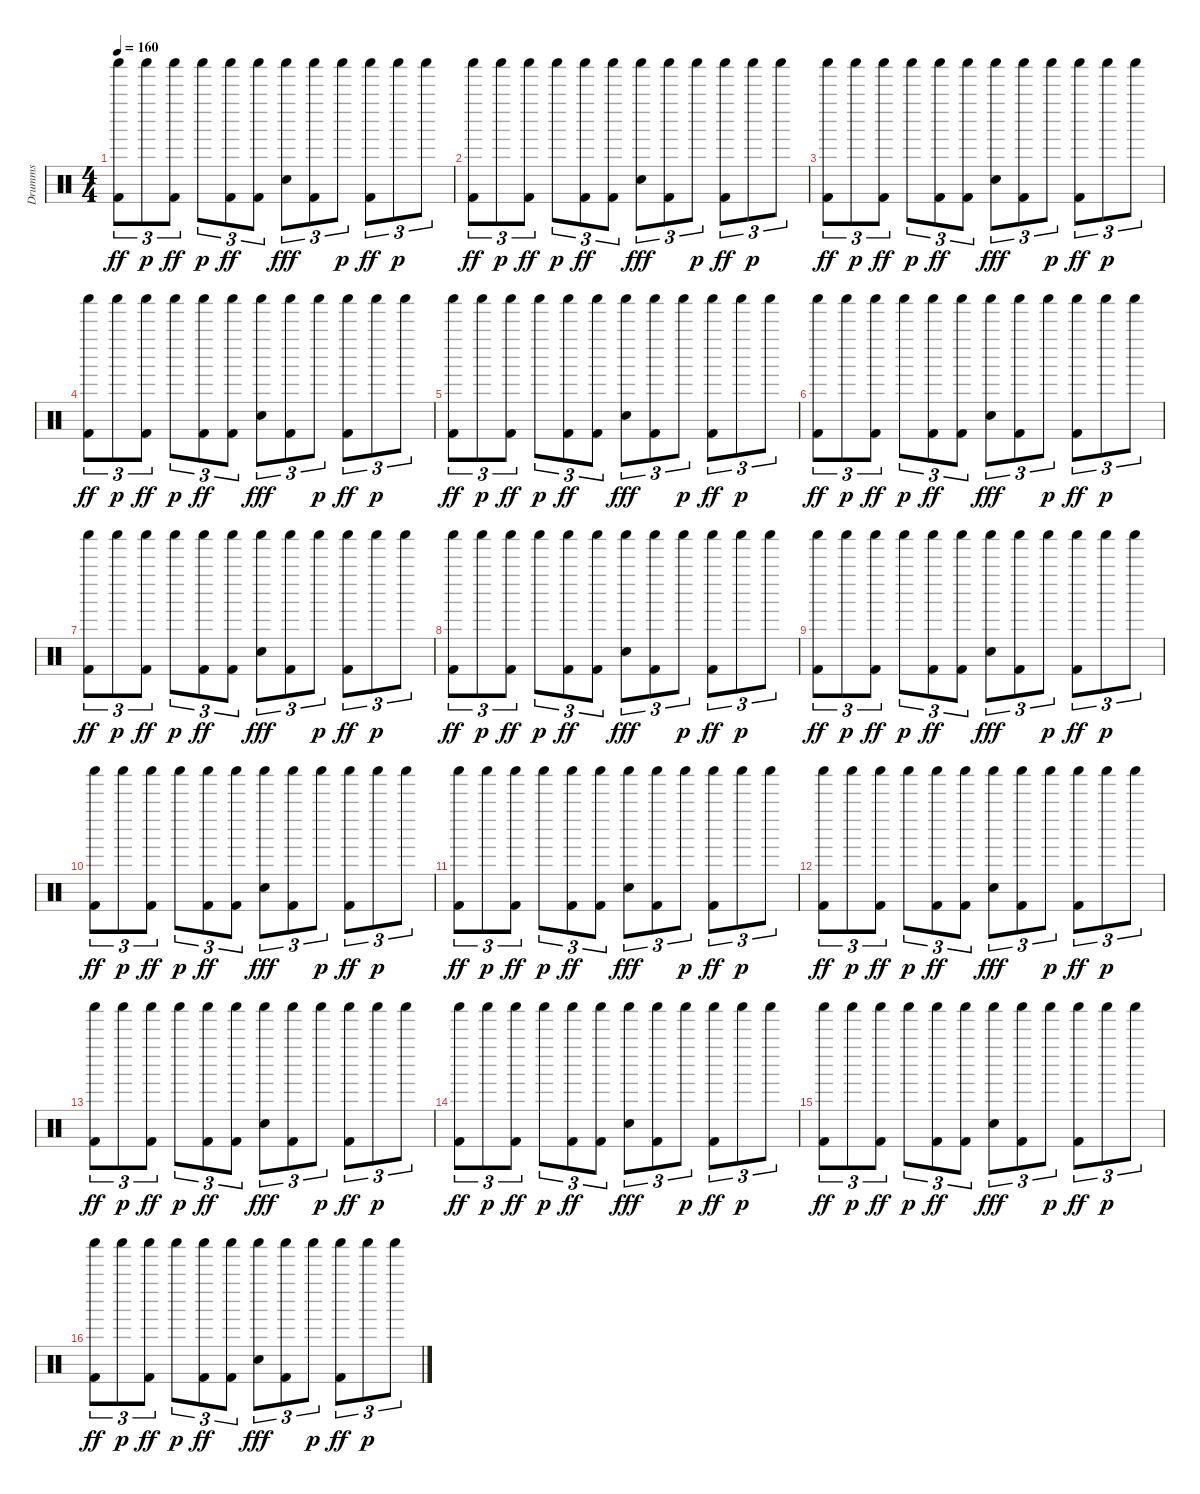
\track ("Drumms" "Drumms") {instrument percussion}
\staff {score}
\articulation defaults
\ts (4 4)
\tempo 160
\clef neutral
\ks c
("Shaker (hit)" "Kick (hit) 2").8{tu (3 2) dy ff} "Shaker (hit)".8{tu (3 2) dy p} ("Shaker (hit)" "Kick (hit) 2").8{tu (3 2) dy ff} "Shaker (hit)".8{tu (3 2) dy p} ("Shaker (hit)" "Kick (hit) 2").8{tu (3 2) dy ff} ("Shaker (hit)" "Kick (hit) 2").8{tu (3 2)} ("Shaker (hit)" "Snare (hit) 2").8{tu (3 2) dy fff} ("Shaker (hit)" "Kick (hit) 2").8{tu (3 2)} "Shaker (hit)".8{tu (3 2) dy p} ("Shaker (hit)" "Kick (hit) 2").8{tu (3 2) dy ff} "Shaker (hit)".8{tu (3 2) dy p} "Shaker (hit)".8{tu (3 2)} |
("Shaker (hit)" "Kick (hit) 2").8{tu (3 2) dy ff} "Shaker (hit)".8{tu (3 2) dy p} ("Shaker (hit)" "Kick (hit) 2").8{tu (3 2) dy ff} "Shaker (hit)".8{tu (3 2) dy p} ("Shaker (hit)" "Kick (hit) 2").8{tu (3 2) dy ff} ("Shaker (hit)" "Kick (hit) 2").8{tu (3 2)} ("Shaker (hit)" "Snare (hit) 2").8{tu (3 2) dy fff} ("Shaker (hit)" "Kick (hit) 2").8{tu (3 2)} "Shaker (hit)".8{tu (3 2) dy p} ("Shaker (hit)" "Kick (hit) 2").8{tu (3 2) dy ff} "Shaker (hit)".8{tu (3 2) dy p} "Shaker (hit)".8{tu (3 2)} |
("Shaker (hit)" "Kick (hit) 2").8{tu (3 2) dy ff} "Shaker (hit)".8{tu (3 2) dy p} ("Shaker (hit)" "Kick (hit) 2").8{tu (3 2) dy ff} "Shaker (hit)".8{tu (3 2) dy p} ("Shaker (hit)" "Kick (hit) 2").8{tu (3 2) dy ff} ("Shaker (hit)" "Kick (hit) 2").8{tu (3 2)} ("Shaker (hit)" "Snare (hit) 2").8{tu (3 2) dy fff} ("Shaker (hit)" "Kick (hit) 2").8{tu (3 2)} "Shaker (hit)".8{tu (3 2) dy p} ("Shaker (hit)" "Kick (hit) 2").8{tu (3 2) dy ff} "Shaker (hit)".8{tu (3 2) dy p} "Shaker (hit)".8{tu (3 2)} |
("Shaker (hit)" "Kick (hit) 2").8{tu (3 2) dy ff} "Shaker (hit)".8{tu (3 2) dy p} ("Shaker (hit)" "Kick (hit) 2").8{tu (3 2) dy ff} "Shaker (hit)".8{tu (3 2) dy p} ("Shaker (hit)" "Kick (hit) 2").8{tu (3 2) dy ff} ("Shaker (hit)" "Kick (hit) 2").8{tu (3 2)} ("Shaker (hit)" "Snare (hit) 2").8{tu (3 2) dy fff} ("Shaker (hit)" "Kick (hit) 2").8{tu (3 2)} "Shaker (hit)".8{tu (3 2) dy p} ("Shaker (hit)" "Kick (hit) 2").8{tu (3 2) dy ff} "Shaker (hit)".8{tu (3 2) dy p} "Shaker (hit)".8{tu (3 2)} |
("Shaker (hit)" "Kick (hit) 2").8{tu (3 2) dy ff} "Shaker (hit)".8{tu (3 2) dy p} ("Shaker (hit)" "Kick (hit) 2").8{tu (3 2) dy ff} "Shaker (hit)".8{tu (3 2) dy p} ("Shaker (hit)" "Kick (hit) 2").8{tu (3 2) dy ff} ("Shaker (hit)" "Kick (hit) 2").8{tu (3 2)} ("Shaker (hit)" "Snare (hit) 2").8{tu (3 2) dy fff} ("Shaker (hit)" "Kick (hit) 2").8{tu (3 2)} "Shaker (hit)".8{tu (3 2) dy p} ("Shaker (hit)" "Kick (hit) 2").8{tu (3 2) dy ff} "Shaker (hit)".8{tu (3 2) dy p} "Shaker (hit)".8{tu (3 2)} |
("Shaker (hit)" "Kick (hit) 2").8{tu (3 2) dy ff} "Shaker (hit)".8{tu (3 2) dy p} ("Shaker (hit)" "Kick (hit) 2").8{tu (3 2) dy ff} "Shaker (hit)".8{tu (3 2) dy p} ("Shaker (hit)" "Kick (hit) 2").8{tu (3 2) dy ff} ("Shaker (hit)" "Kick (hit) 2").8{tu (3 2)} ("Shaker (hit)" "Snare (hit) 2").8{tu (3 2) dy fff} ("Shaker (hit)" "Kick (hit) 2").8{tu (3 2)} "Shaker (hit)".8{tu (3 2) dy p} ("Shaker (hit)" "Kick (hit) 2").8{tu (3 2) dy ff} "Shaker (hit)".8{tu (3 2) dy p} "Shaker (hit)".8{tu (3 2)} |
("Shaker (hit)" "Kick (hit) 2").8{tu (3 2) dy ff} "Shaker (hit)".8{tu (3 2) dy p} ("Shaker (hit)" "Kick (hit) 2").8{tu (3 2) dy ff} "Shaker (hit)".8{tu (3 2) dy p} ("Shaker (hit)" "Kick (hit) 2").8{tu (3 2) dy ff} ("Shaker (hit)" "Kick (hit) 2").8{tu (3 2)} ("Shaker (hit)" "Snare (hit) 2").8{tu (3 2) dy fff} ("Shaker (hit)" "Kick (hit) 2").8{tu (3 2)} "Shaker (hit)".8{tu (3 2) dy p} ("Shaker (hit)" "Kick (hit) 2").8{tu (3 2) dy ff} "Shaker (hit)".8{tu (3 2) dy p} "Shaker (hit)".8{tu (3 2)} |
("Shaker (hit)" "Kick (hit) 2").8{tu (3 2) dy ff} "Shaker (hit)".8{tu (3 2) dy p} ("Shaker (hit)" "Kick (hit) 2").8{tu (3 2) dy ff} "Shaker (hit)".8{tu (3 2) dy p} ("Shaker (hit)" "Kick (hit) 2").8{tu (3 2) dy ff} ("Shaker (hit)" "Kick (hit) 2").8{tu (3 2)} ("Shaker (hit)" "Snare (hit) 2").8{tu (3 2) dy fff} ("Shaker (hit)" "Kick (hit) 2").8{tu (3 2)} "Shaker (hit)".8{tu (3 2) dy p} ("Shaker (hit)" "Kick (hit) 2").8{tu (3 2) dy ff} "Shaker (hit)".8{tu (3 2) dy p} "Shaker (hit)".8{tu (3 2)} |
("Shaker (hit)" "Kick (hit) 2").8{tu (3 2) dy ff} "Shaker (hit)".8{tu (3 2) dy p} ("Shaker (hit)" "Kick (hit) 2").8{tu (3 2) dy ff} "Shaker (hit)".8{tu (3 2) dy p} ("Shaker (hit)" "Kick (hit) 2").8{tu (3 2) dy ff} ("Shaker (hit)" "Kick (hit) 2").8{tu (3 2)} ("Shaker (hit)" "Snare (hit) 2").8{tu (3 2) dy fff} ("Shaker (hit)" "Kick (hit) 2").8{tu (3 2)} "Shaker (hit)".8{tu (3 2) dy p} ("Shaker (hit)" "Kick (hit) 2").8{tu (3 2) dy ff} "Shaker (hit)".8{tu (3 2) dy p} "Shaker (hit)".8{tu (3 2)} |
("Shaker (hit)" "Kick (hit) 2").8{tu (3 2) dy ff} "Shaker (hit)".8{tu (3 2) dy p} ("Shaker (hit)" "Kick (hit) 2").8{tu (3 2) dy ff} "Shaker (hit)".8{tu (3 2) dy p} ("Shaker (hit)" "Kick (hit) 2").8{tu (3 2) dy ff} ("Shaker (hit)" "Kick (hit) 2").8{tu (3 2)} ("Shaker (hit)" "Snare (hit) 2").8{tu (3 2) dy fff} ("Shaker (hit)" "Kick (hit) 2").8{tu (3 2)} "Shaker (hit)".8{tu (3 2) dy p} ("Shaker (hit)" "Kick (hit) 2").8{tu (3 2) dy ff} "Shaker (hit)".8{tu (3 2) dy p} "Shaker (hit)".8{tu (3 2)} |
("Shaker (hit)" "Kick (hit) 2").8{tu (3 2) dy ff} "Shaker (hit)".8{tu (3 2) dy p} ("Shaker (hit)" "Kick (hit) 2").8{tu (3 2) dy ff} "Shaker (hit)".8{tu (3 2) dy p} ("Shaker (hit)" "Kick (hit) 2").8{tu (3 2) dy ff} ("Shaker (hit)" "Kick (hit) 2").8{tu (3 2)} ("Shaker (hit)" "Snare (hit) 2").8{tu (3 2) dy fff} ("Shaker (hit)" "Kick (hit) 2").8{tu (3 2)} "Shaker (hit)".8{tu (3 2) dy p} ("Shaker (hit)" "Kick (hit) 2").8{tu (3 2) dy ff} "Shaker (hit)".8{tu (3 2) dy p} "Shaker (hit)".8{tu (3 2)} |
("Shaker (hit)" "Kick (hit) 2").8{tu (3 2) dy ff} "Shaker (hit)".8{tu (3 2) dy p} ("Shaker (hit)" "Kick (hit) 2").8{tu (3 2) dy ff} "Shaker (hit)".8{tu (3 2) dy p} ("Shaker (hit)" "Kick (hit) 2").8{tu (3 2) dy ff} ("Shaker (hit)" "Kick (hit) 2").8{tu (3 2)} ("Shaker (hit)" "Snare (hit) 2").8{tu (3 2) dy fff} ("Shaker (hit)" "Kick (hit) 2").8{tu (3 2)} "Shaker (hit)".8{tu (3 2) dy p} ("Shaker (hit)" "Kick (hit) 2").8{tu (3 2) dy ff} "Shaker (hit)".8{tu (3 2) dy p} "Shaker (hit)".8{tu (3 2)} |
("Shaker (hit)" "Kick (hit) 2").8{tu (3 2) dy ff} "Shaker (hit)".8{tu (3 2) dy p} ("Shaker (hit)" "Kick (hit) 2").8{tu (3 2) dy ff} "Shaker (hit)".8{tu (3 2) dy p} ("Shaker (hit)" "Kick (hit) 2").8{tu (3 2) dy ff} ("Shaker (hit)" "Kick (hit) 2").8{tu (3 2)} ("Shaker (hit)" "Snare (hit) 2").8{tu (3 2) dy fff} ("Shaker (hit)" "Kick (hit) 2").8{tu (3 2)} "Shaker (hit)".8{tu (3 2) dy p} ("Shaker (hit)" "Kick (hit) 2").8{tu (3 2) dy ff} "Shaker (hit)".8{tu (3 2) dy p} "Shaker (hit)".8{tu (3 2)} |
("Shaker (hit)" "Kick (hit) 2").8{tu (3 2) dy ff} "Shaker (hit)".8{tu (3 2) dy p} ("Shaker (hit)" "Kick (hit) 2").8{tu (3 2) dy ff} "Shaker (hit)".8{tu (3 2) dy p} ("Shaker (hit)" "Kick (hit) 2").8{tu (3 2) dy ff} ("Shaker (hit)" "Kick (hit) 2").8{tu (3 2)} ("Shaker (hit)" "Snare (hit) 2").8{tu (3 2) dy fff} ("Shaker (hit)" "Kick (hit) 2").8{tu (3 2)} "Shaker (hit)".8{tu (3 2) dy p} ("Shaker (hit)" "Kick (hit) 2").8{tu (3 2) dy ff} "Shaker (hit)".8{tu (3 2) dy p} "Shaker (hit)".8{tu (3 2)} |
("Shaker (hit)" "Kick (hit) 2").8{tu (3 2) dy ff} "Shaker (hit)".8{tu (3 2) dy p} ("Shaker (hit)" "Kick (hit) 2").8{tu (3 2) dy ff} "Shaker (hit)".8{tu (3 2) dy p} ("Shaker (hit)" "Kick (hit) 2").8{tu (3 2) dy ff} ("Shaker (hit)" "Kick (hit) 2").8{tu (3 2)} ("Shaker (hit)" "Snare (hit) 2").8{tu (3 2) dy fff} ("Shaker (hit)" "Kick (hit) 2").8{tu (3 2)} "Shaker (hit)".8{tu (3 2) dy p} ("Shaker (hit)" "Kick (hit) 2").8{tu (3 2) dy ff} "Shaker (hit)".8{tu (3 2) dy p} "Shaker (hit)".8{tu (3 2)} |
("Shaker (hit)" "Kick (hit) 2").8{tu (3 2) dy ff} "Shaker (hit)".8{tu (3 2) dy p} ("Shaker (hit)" "Kick (hit) 2").8{tu (3 2) dy ff} "Shaker (hit)".8{tu (3 2) dy p} ("Shaker (hit)" "Kick (hit) 2").8{tu (3 2) dy ff} ("Shaker (hit)" "Kick (hit) 2").8{tu (3 2)} ("Shaker (hit)" "Snare (hit) 2").8{tu (3 2) dy fff} ("Shaker (hit)" "Kick (hit) 2").8{tu (3 2)} "Shaker (hit)".8{tu (3 2) dy p} ("Shaker (hit)" "Kick (hit) 2").8{tu (3 2) dy ff} "Shaker (hit)".8{tu (3 2) dy p} "Shaker (hit)".8{tu (3 2)}
